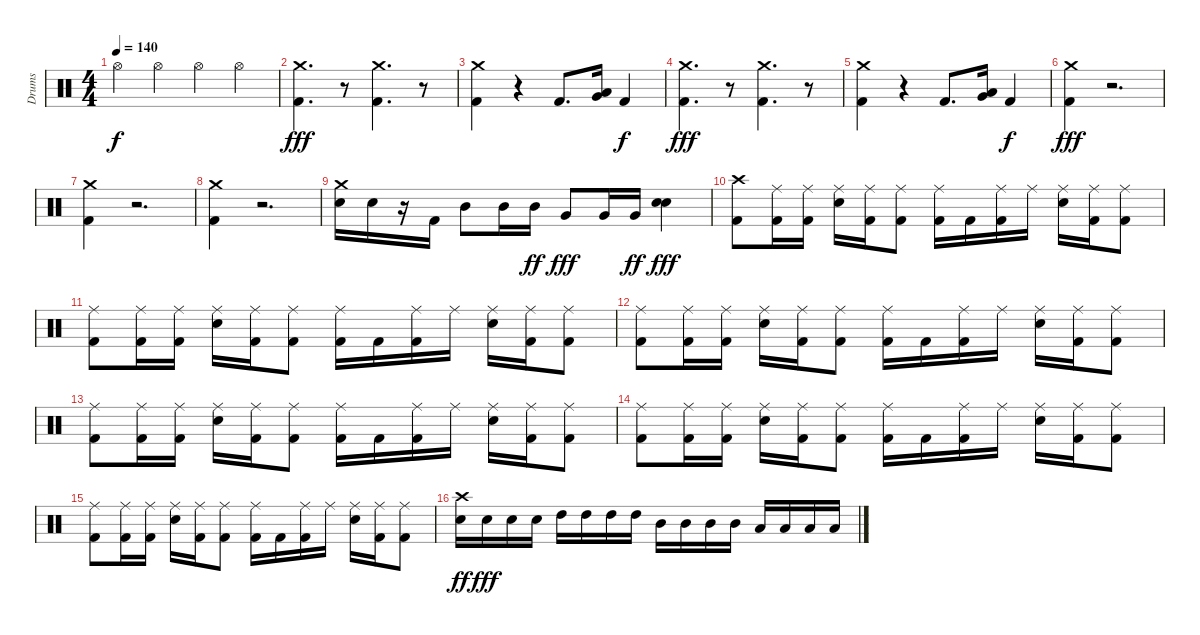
\track ("Drums" "Drums") {instrument percussion}
\staff {score}
\articulation defaults
\ts (4 4)
\tempo 140
\clef neutral
\ks c "Hi-Hat (open)".4{dy f} "Hi-Hat (open)".4 "Hi-Hat (open)".4 "Hi-Hat (open)".4
|
("Kick (hit) 2" "Crash medium (hit)").4{d dy fff} r.8 ("Kick (hit) 2" "Crash medium (hit)").4{d} r.8 |
("Kick (hit) 2" "Crash medium (hit)").4 r.4 "Kick (hit) 2".8{d} ("Low Tom (hit)" "Very Low Tom (hit)").16 "Kick (hit) 2".4{dy f} |
("Kick (hit) 2" "Crash medium (hit)").4{d dy fff} r.8 ("Kick (hit) 2" "Crash medium (hit)").4{d} r.8 |
("Kick (hit) 2" "Crash medium (hit)").4 r.4 "Kick (hit) 2".8{d} ("Low Tom (hit)" "Very Low Tom (hit)").16 "Kick (hit) 2".4{dy f} |
("Kick (hit) 2" "Crash medium (hit)").4{dy fff} r.2{d} |
("Kick (hit) 2" "Crash medium (hit)").4 r.2{d} |
("Kick (hit) 2" "Crash medium (hit)").4 r.2{d} |
("Electric Snare (hit)" "Crash medium (hit)").16 "Electric Snare (hit)".16 r.16 "Kick (hit) 2".16 "Mid Tom (hit)".8 "Mid Tom (hit)".16 "Mid Tom (hit)".16{dy ff} "Very Low Tom (hit)".8{dy fff} "Very Low Tom (hit)".16 "Very Low Tom (hit)".16{dy ff} ("Snare (hit) 2" "Electric Snare (hit)").4{dy fff} |
("Kick (hit) 2" "Crash high (hit)").8 ("Ride (middle)" "Kick (hit) 2").16 ("Ride (middle)" "Kick (hit) 2").16 ("Ride (middle)" "Electric Snare (hit)").16 ("Ride (middle)" "Kick (hit) 2").16 ("Ride (middle)" "Kick (hit) 2").8 ("Ride (middle)" "Kick (hit) 2").16 "Kick (hit) 2".16 ("Ride (middle)" "Kick (hit) 2").16 "Ride (middle)".16 ("Ride (middle)" "Electric Snare (hit)").16 ("Ride (middle)" "Kick (hit) 2").16 ("Ride (middle)" "Kick (hit) 2").8 |
("Ride (middle)" "Kick (hit) 2").8 ("Ride (middle)" "Kick (hit) 2").16 ("Ride (middle)" "Kick (hit) 2").16 ("Ride (middle)" "Electric Snare (hit)").16 ("Ride (middle)" "Kick (hit) 2").16 ("Ride (middle)" "Kick (hit) 2").8 ("Ride (middle)" "Kick (hit) 2").16 "Kick (hit) 2".16 ("Ride (middle)" "Kick (hit) 2").16 "Ride (middle)".16 ("Ride (middle)" "Electric Snare (hit)").16 ("Ride (middle)" "Kick (hit) 2").16 ("Ride (middle)" "Kick (hit) 2").8 |
("Ride (middle)" "Kick (hit) 2").8 ("Ride (middle)" "Kick (hit) 2").16 ("Ride (middle)" "Kick (hit) 2").16 ("Ride (middle)" "Electric Snare (hit)").16 ("Ride (middle)" "Kick (hit) 2").16 ("Ride (middle)" "Kick (hit) 2").8 ("Ride (middle)" "Kick (hit) 2").16 "Kick (hit) 2".16 ("Ride (middle)" "Kick (hit) 2").16 "Ride (middle)".16 ("Ride (middle)" "Electric Snare (hit)").16 ("Ride (middle)" "Kick (hit) 2").16 ("Ride (middle)" "Kick (hit) 2").8 |
("Ride (middle)" "Kick (hit) 2").8 ("Ride (middle)" "Kick (hit) 2").16 ("Ride (middle)" "Kick (hit) 2").16 ("Ride (middle)" "Electric Snare (hit)").16 ("Ride (middle)" "Kick (hit) 2").16 ("Ride (middle)" "Kick (hit) 2").8 ("Ride (middle)" "Kick (hit) 2").16 "Kick (hit) 2".16 ("Ride (middle)" "Kick (hit) 2").16 "Ride (middle)".16 ("Ride (middle)" "Electric Snare (hit)").16 ("Ride (middle)" "Kick (hit) 2").16 ("Ride (middle)" "Kick (hit) 2").8 |
("Ride (middle)" "Kick (hit) 2").8 ("Ride (middle)" "Kick (hit) 2").16 ("Ride (middle)" "Kick (hit) 2").16 ("Ride (middle)" "Electric Snare (hit)").16 ("Ride (middle)" "Kick (hit) 2").16 ("Ride (middle)" "Kick (hit) 2").8 ("Ride (middle)" "Kick (hit) 2").16 "Kick (hit) 2".16 ("Ride (middle)" "Kick (hit) 2").16 "Ride (middle)".16 ("Ride (middle)" "Electric Snare (hit)").16 ("Ride (middle)" "Kick (hit) 2").16 ("Ride (middle)" "Kick (hit) 2").8 |
("Ride (middle)" "Kick (hit) 2").8 ("Ride (middle)" "Kick (hit) 2").16 ("Ride (middle)" "Kick (hit) 2").16 ("Ride (middle)" "Electric Snare (hit)").16 ("Ride (middle)" "Kick (hit) 2").16 ("Ride (middle)" "Kick (hit) 2").8 ("Ride (middle)" "Kick (hit) 2").16 "Kick (hit) 2".16 ("Ride (middle)" "Kick (hit) 2").16 "Ride (middle)".16 ("Ride (middle)" "Electric Snare (hit)").16 ("Ride (middle)" "Kick (hit) 2").16 ("Ride (middle)" "Kick (hit) 2").8 |
("Electric Snare (hit)" "Crash high (hit)").16{dy ff} "Electric Snare (hit)".16{dy fff} "Electric Snare (hit)".16 "Electric Snare (hit)".16 "High Tom (hit)".16 "High Tom (hit)".16 "High Tom (hit)".16 "High Tom (hit)".16 "Mid Tom (hit)".16 "Mid Tom (hit)".16 "Mid Tom (hit)".16 "Mid Tom (hit)".16 "Low Tom (hit)".16 "Low Tom (hit)".16 "Low Tom (hit)".16 "Low Tom (hit)".16
